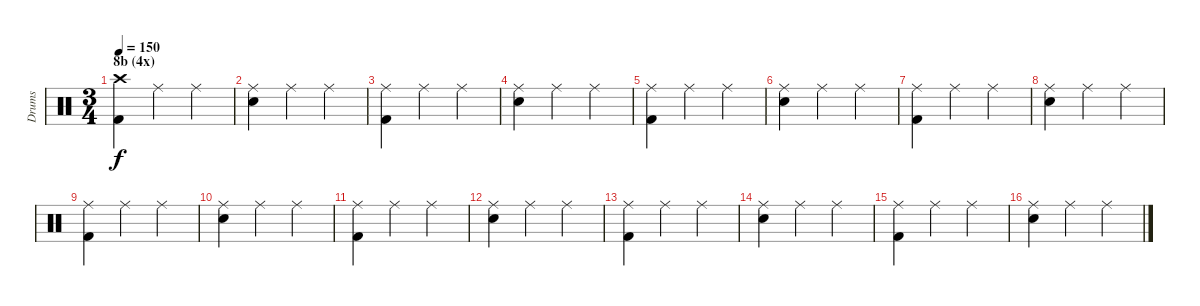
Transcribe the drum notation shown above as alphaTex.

\track ("Drums" "Drums") {instrument percussion}
\staff {score}
\articulation defaults
\ts (3 4)
\section ("" "8b (4x)")
\tempo 150
\clef neutral
\ks c
("Crash high (hit)" "Kick (hit) 2").4{dy f} "Ride (middle)".4 "Ride (middle)".4 |
("Ride (middle)" "Snare (hit) 2").4 "Ride (middle)".4 "Ride (middle)".4 |
("Ride (middle)" "Kick (hit) 2").4 "Ride (middle)".4 "Ride (middle)".4 |
("Ride (middle)" "Snare (hit) 2").4 "Ride (middle)".4 "Ride (middle)".4 |
("Ride (middle)" "Kick (hit) 2").4 "Ride (middle)".4 "Ride (middle)".4 |
("Ride (middle)" "Snare (hit) 2").4 "Ride (middle)".4 "Ride (middle)".4 |
("Ride (middle)" "Kick (hit) 2").4 "Ride (middle)".4 "Ride (middle)".4 |
("Ride (middle)" "Snare (hit) 2").4 "Ride (middle)".4 "Ride (middle)".4 |
("Ride (middle)" "Kick (hit) 2").4 "Ride (middle)".4 "Ride (middle)".4 |
("Ride (middle)" "Snare (hit) 2").4 "Ride (middle)".4 "Ride (middle)".4 |
("Ride (middle)" "Kick (hit) 2").4 "Ride (middle)".4 "Ride (middle)".4 |
("Ride (middle)" "Snare (hit) 2").4 "Ride (middle)".4 "Ride (middle)".4 |
("Ride (middle)" "Kick (hit) 2").4 "Ride (middle)".4 "Ride (middle)".4 |
("Ride (middle)" "Snare (hit) 2").4 "Ride (middle)".4 "Ride (middle)".4 |
("Ride (middle)" "Kick (hit) 2").4 "Ride (middle)".4 "Ride (middle)".4 |
("Ride (middle)" "Snare (hit) 2").4 "Ride (middle)".4 "Ride (middle)".4
